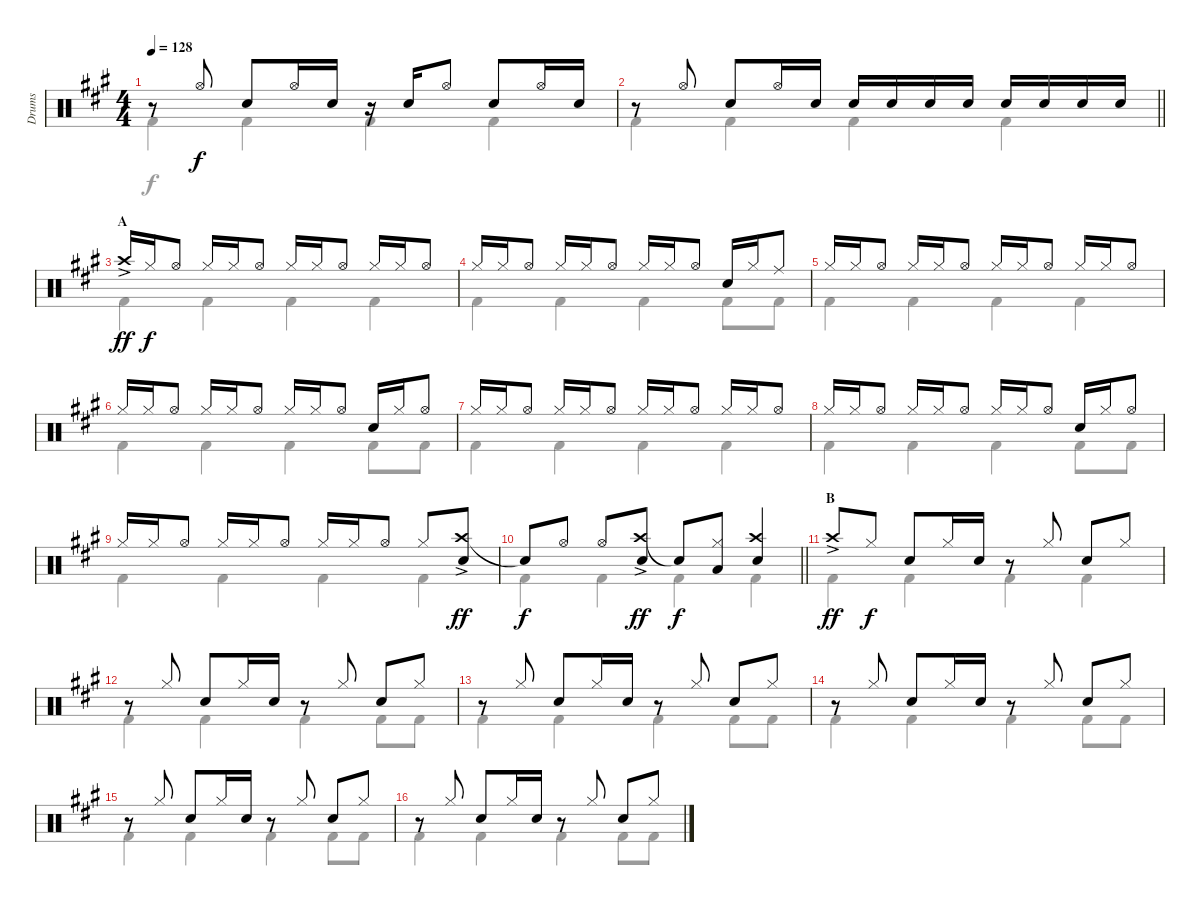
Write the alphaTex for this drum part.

\track ("Drums" "Drums") {instrument percussion}
\staff {score}
\articulation defaults
\voice
\ts (4 4)
\tempo 128
\clef neutral
\ks a
r.8{dy f} "Hi-Hat (open)".8 "Snare (hit) 2".8 "Hi-Hat (open)".16 "Snare (hit) 2".16 r.16 "Snare (hit) 2".16 "Hi-Hat (open)".8 "Snare (hit) 2".8 "Hi-Hat (open)".16 "Snare (hit) 2".16 |
\barLineRight lightlight
r.8 "Hi-Hat (open)".8 "Snare (hit) 2".8 "Hi-Hat (open)".16 "Snare (hit) 2".16 "Snare (hit) 2".16 "Snare (hit) 2".16 "Snare (hit) 2".16 "Snare (hit) 2".16 "Snare (hit) 2".16 "Snare (hit) 2".16 "Snare (hit) 2".16 "Snare (hit) 2".16 |
\section ("" "A")
"Crash high (hit)"{ac}.16{dy ff} "Hi-Hat (closed)".16{dy f} "Hi-Hat (open)".8 "Hi-Hat (closed)".16 "Hi-Hat (closed)".16 "Hi-Hat (open)".8 "Hi-Hat (closed)".16 "Hi-Hat (closed)".16 "Hi-Hat (open)".8 "Hi-Hat (closed)".16 "Hi-Hat (closed)".16 "Hi-Hat (open)".8 |
"Hi-Hat (closed)".16 "Hi-Hat (closed)".16 "Hi-Hat (open)".8 "Hi-Hat (closed)".16 "Hi-Hat (closed)".16 "Hi-Hat (open)".8 "Hi-Hat (closed)".16 "Hi-Hat (closed)".16 "Hi-Hat (open)".8 "Snare (hit) 2".16 "Hi-Hat (closed)".16 "Ride (middle)".8 |
"Hi-Hat (closed)".16 "Hi-Hat (closed)".16 "Hi-Hat (open)".8 "Hi-Hat (closed)".16 "Hi-Hat (closed)".16 "Hi-Hat (open)".8 "Hi-Hat (closed)".16 "Hi-Hat (closed)".16 "Hi-Hat (open)".8 "Hi-Hat (closed)".16 "Hi-Hat (closed)".16 "Hi-Hat (open)".8 |
"Hi-Hat (closed)".16 "Hi-Hat (closed)".16 "Hi-Hat (open)".8 "Hi-Hat (closed)".16 "Hi-Hat (closed)".16 "Hi-Hat (open)".8 "Hi-Hat (closed)".16 "Hi-Hat (closed)".16 "Hi-Hat (open)".8 "Snare (hit) 2".16 "Hi-Hat (closed)".16 "Hi-Hat (open)".8 |
"Hi-Hat (closed)".16 "Hi-Hat (closed)".16 "Hi-Hat (open)".8 "Hi-Hat (closed)".16 "Hi-Hat (closed)".16 "Hi-Hat (open)".8 "Hi-Hat (closed)".16 "Hi-Hat (closed)".16 "Hi-Hat (open)".8 "Hi-Hat (closed)".16 "Hi-Hat (closed)".16 "Hi-Hat (open)".8 |
"Hi-Hat (closed)".16 "Hi-Hat (closed)".16 "Hi-Hat (open)".8 "Hi-Hat (closed)".16 "Hi-Hat (closed)".16 "Hi-Hat (open)".8 "Hi-Hat (closed)".16 "Hi-Hat (closed)".16 "Hi-Hat (open)".8 "Snare (hit) 2".16 "Hi-Hat (closed)".16 "Hi-Hat (open)".8 |
"Hi-Hat (closed)".16 "Hi-Hat (closed)".16 "Hi-Hat (open)".8 "Hi-Hat (closed)".16 "Hi-Hat (closed)".16 "Hi-Hat (open)".8 "Hi-Hat (closed)".16 "Hi-Hat (closed)".16 "Hi-Hat (open)".8 "Hi-Hat (closed)".8 ("Crash high (hit)"{ac} "Snare (hit) 2").8{dy ff} |
\barLineRight lightlight "Snare (hit)"{t}.8{dy f} "Hi-Hat (open)".8 "Hi-Hat (open)".8
("Crash high (hit)"{ac} "Snare (hit) 2").8{dy ff} "Snare (hit)"{t}.8{dy f} ("Hi-Hat (closed)" "Low Tom (hit)").8 ("Crash high (hit)" "Snare (hit) 2").4 |
\section ("" "B")
"Crash high (hit)"{ac}.8{dy ff} "Hi-Hat (closed)".8{dy f} "Snare (hit) 2".8 "Hi-Hat (closed)".16 "Snare (hit) 2".16 r.8 "Hi-Hat (closed)".8 "Snare (hit) 2".8 "Hi-Hat (closed)".8 |
r.8 "Hi-Hat (closed)".8 "Snare (hit) 2".8 "Hi-Hat (closed)".16 "Snare (hit) 2".16 r.8 "Hi-Hat (closed)".8 "Snare (hit) 2".8 "Hi-Hat (closed)".8 |
r.8 "Hi-Hat (closed)".8 "Snare (hit) 2".8 "Hi-Hat (closed)".16 "Snare (hit) 2".16 r.8 "Hi-Hat (closed)".8 "Snare (hit) 2".8 "Hi-Hat (closed)".8 |
r.8 "Hi-Hat (closed)".8 "Snare (hit) 2".8 "Hi-Hat (closed)".16 "Snare (hit) 2".16 r.8 "Hi-Hat (closed)".8 "Snare (hit) 2".8 "Hi-Hat (closed)".8 |
r.8 "Hi-Hat (closed)".8 "Snare (hit) 2".8 "Hi-Hat (closed)".16 "Snare (hit) 2".16 r.8 "Hi-Hat (closed)".8 "Snare (hit) 2".8 "Hi-Hat (closed)".8 |
r.8 "Hi-Hat (closed)".8 "Snare (hit) 2".8 "Hi-Hat (closed)".16 "Snare (hit) 2".16 r.8 "Hi-Hat (closed)".8 "Snare (hit) 2".8 "Hi-Hat (closed)".8
\voice
\clef neutral
\ottava regular
\simile none
\ks a "Kick (hit) 2".4{dy f} "Kick (hit) 2".4 "Kick (hit) 2".4 "Kick (hit) 2".4
|
\barLineRight lightlight "Kick (hit) 2".4 "Kick (hit) 2".4 "Kick (hit) 2".4 "Kick (hit) 2".4
|
"Kick (hit) 2".4 "Kick (hit) 2".4 "Kick (hit) 2".4 "Kick (hit) 2".4 |
"Kick (hit) 2".4 "Kick (hit) 2".4 "Kick (hit) 2".4 "Kick (hit) 2".8 "Kick (hit) 2".8 |
"Kick (hit) 2".4 "Kick (hit) 2".4 "Kick (hit) 2".4 "Kick (hit) 2".4 |
"Kick (hit) 2".4 "Kick (hit) 2".4 "Kick (hit) 2".4 "Kick (hit) 2".8 "Kick (hit) 2".8 |
"Kick (hit) 2".4 "Kick (hit) 2".4 "Kick (hit) 2".4 "Kick (hit) 2".4 |
"Kick (hit) 2".4 "Kick (hit) 2".4 "Kick (hit) 2".4 "Kick (hit) 2".8 "Kick (hit) 2".8 |
"Kick (hit) 2".4 "Kick (hit) 2".4 "Kick (hit) 2".4 "Kick (hit) 2".4 |
\barLineRight lightlight "Kick (hit) 2".4 "Kick (hit) 2".4 "Kick (hit) 2".4 "Kick (hit) 2".4
|
"Kick (hit) 2".4 "Kick (hit) 2".4 "Kick (hit) 2".4 "Kick (hit) 2".4 |
"Kick (hit) 2".4 "Kick (hit) 2".4 "Kick (hit) 2".4 "Kick (hit) 2".8 "Kick (hit) 2".8 |
"Kick (hit) 2".4 "Kick (hit) 2".4 "Kick (hit) 2".4 "Kick (hit) 2".8 "Kick (hit) 2".8 |
"Kick (hit) 2".4 "Kick (hit) 2".4 "Kick (hit) 2".4 "Kick (hit) 2".8 "Kick (hit) 2".8 |
"Kick (hit) 2".4 "Kick (hit) 2".4 "Kick (hit) 2".4 "Kick (hit) 2".8 "Kick (hit) 2".8 |
"Kick (hit) 2".4 "Kick (hit) 2".4 "Kick (hit) 2".4 "Kick (hit) 2".8 "Kick (hit) 2".8
